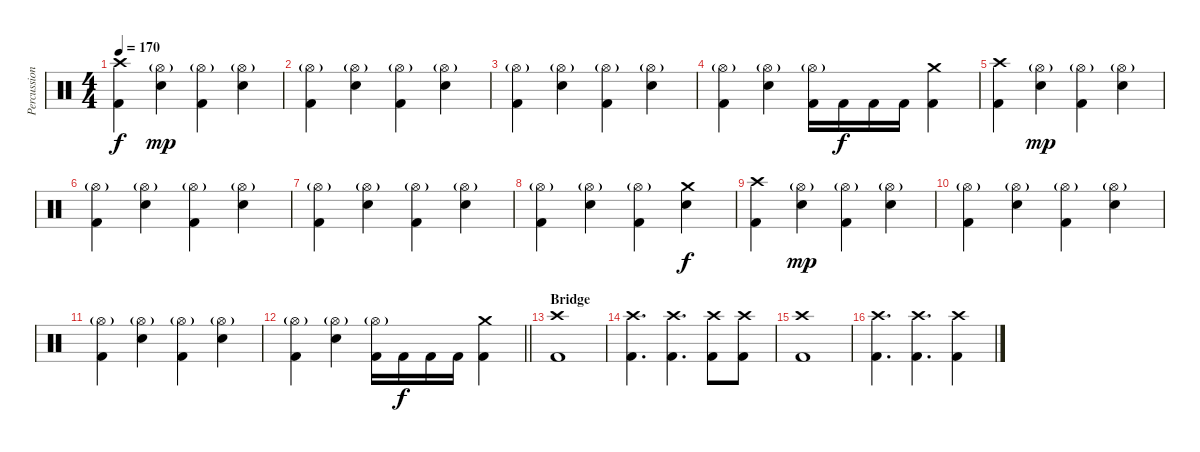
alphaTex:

\track ("Percussions" "Percussion") {instrument percussion}
\staff {score}
\articulation defaults
\ts (4 4)
\tempo 170
\clef neutral
\ks c
("Crash high (hit)" "Kick (hit) 2").4{dy f} ("Hi-Hat (open)"{g} "Electric Snare (hit)").4{dy mp} ("Hi-Hat (open)"{g} "Kick (hit) 2").4 ("Hi-Hat (open)"{g} "Electric Snare (hit)").4 |
("Hi-Hat (open)"{g} "Kick (hit) 2").4 ("Hi-Hat (open)"{g} "Electric Snare (hit)").4 ("Hi-Hat (open)"{g} "Kick (hit) 2").4 ("Hi-Hat (open)"{g} "Electric Snare (hit)").4 |
("Hi-Hat (open)"{g} "Kick (hit) 2").4 ("Hi-Hat (open)"{g} "Electric Snare (hit)").4 ("Hi-Hat (open)"{g} "Kick (hit) 2").4 ("Hi-Hat (open)"{g} "Electric Snare (hit)").4 |
("Hi-Hat (open)"{g} "Kick (hit) 2").4 ("Hi-Hat (open)"{g} "Electric Snare (hit)").4 ("Hi-Hat (open)"{g} "Kick (hit) 2").16 "Kick (hit) 2".16{dy f} "Kick (hit) 2".16 "Kick (hit) 2".16 ("Crash medium (hit)" "Kick (hit) 2").4 |
("Crash high (hit)" "Kick (hit) 2").4 ("Hi-Hat (open)"{g} "Electric Snare (hit)").4{dy mp} ("Hi-Hat (open)"{g} "Kick (hit) 2").4 ("Hi-Hat (open)"{g} "Electric Snare (hit)").4 |
("Hi-Hat (open)"{g} "Kick (hit) 2").4 ("Hi-Hat (open)"{g} "Electric Snare (hit)").4 ("Hi-Hat (open)"{g} "Kick (hit) 2").4 ("Hi-Hat (open)"{g} "Electric Snare (hit)").4 |
("Hi-Hat (open)"{g} "Kick (hit) 2").4 ("Hi-Hat (open)"{g} "Electric Snare (hit)").4 ("Hi-Hat (open)"{g} "Kick (hit) 2").4 ("Hi-Hat (open)"{g} "Electric Snare (hit)").4 |
("Hi-Hat (open)"{g} "Kick (hit) 2").4 ("Hi-Hat (open)"{g} "Electric Snare (hit)").4 ("Hi-Hat (open)"{g} "Kick (hit) 2").4 ("Crash medium (hit)" "Electric Snare (hit)").4{dy f} |
("Crash high (hit)" "Kick (hit) 2").4 ("Hi-Hat (open)"{g} "Electric Snare (hit)").4{dy mp} ("Hi-Hat (open)"{g} "Kick (hit) 2").4 ("Hi-Hat (open)"{g} "Electric Snare (hit)").4 |
("Hi-Hat (open)"{g} "Kick (hit) 2").4 ("Hi-Hat (open)"{g} "Electric Snare (hit)").4 ("Hi-Hat (open)"{g} "Kick (hit) 2").4 ("Hi-Hat (open)"{g} "Electric Snare (hit)").4 |
("Hi-Hat (open)"{g} "Kick (hit) 2").4 ("Hi-Hat (open)"{g} "Electric Snare (hit)").4 ("Hi-Hat (open)"{g} "Kick (hit) 2").4 ("Hi-Hat (open)"{g} "Electric Snare (hit)").4 |
\barLineRight lightlight
("Hi-Hat (open)"{g} "Kick (hit) 2").4 ("Hi-Hat (open)"{g} "Electric Snare (hit)").4 ("Hi-Hat (open)"{g} "Kick (hit) 2").16 "Kick (hit) 2".16{dy f} "Kick (hit) 2".16 "Kick (hit) 2".16 ("Crash medium (hit)" "Kick (hit) 2").4 |
\section ("" "Bridge")
("Crash high (hit)" "Kick (hit) 2").1 |
("Crash high (hit)" "Kick (hit) 2").4{d} ("Crash high (hit)" "Kick (hit) 2").4{d} ("Crash high (hit)" "Kick (hit) 2").8 ("Crash high (hit)" "Kick (hit) 2").8 |
("Crash high (hit)" "Kick (hit) 2").1 |
("Crash high (hit)" "Kick (hit) 2").4{d} ("Crash high (hit)" "Kick (hit) 2").4{d} ("Crash high (hit)" "Kick (hit) 2").4
